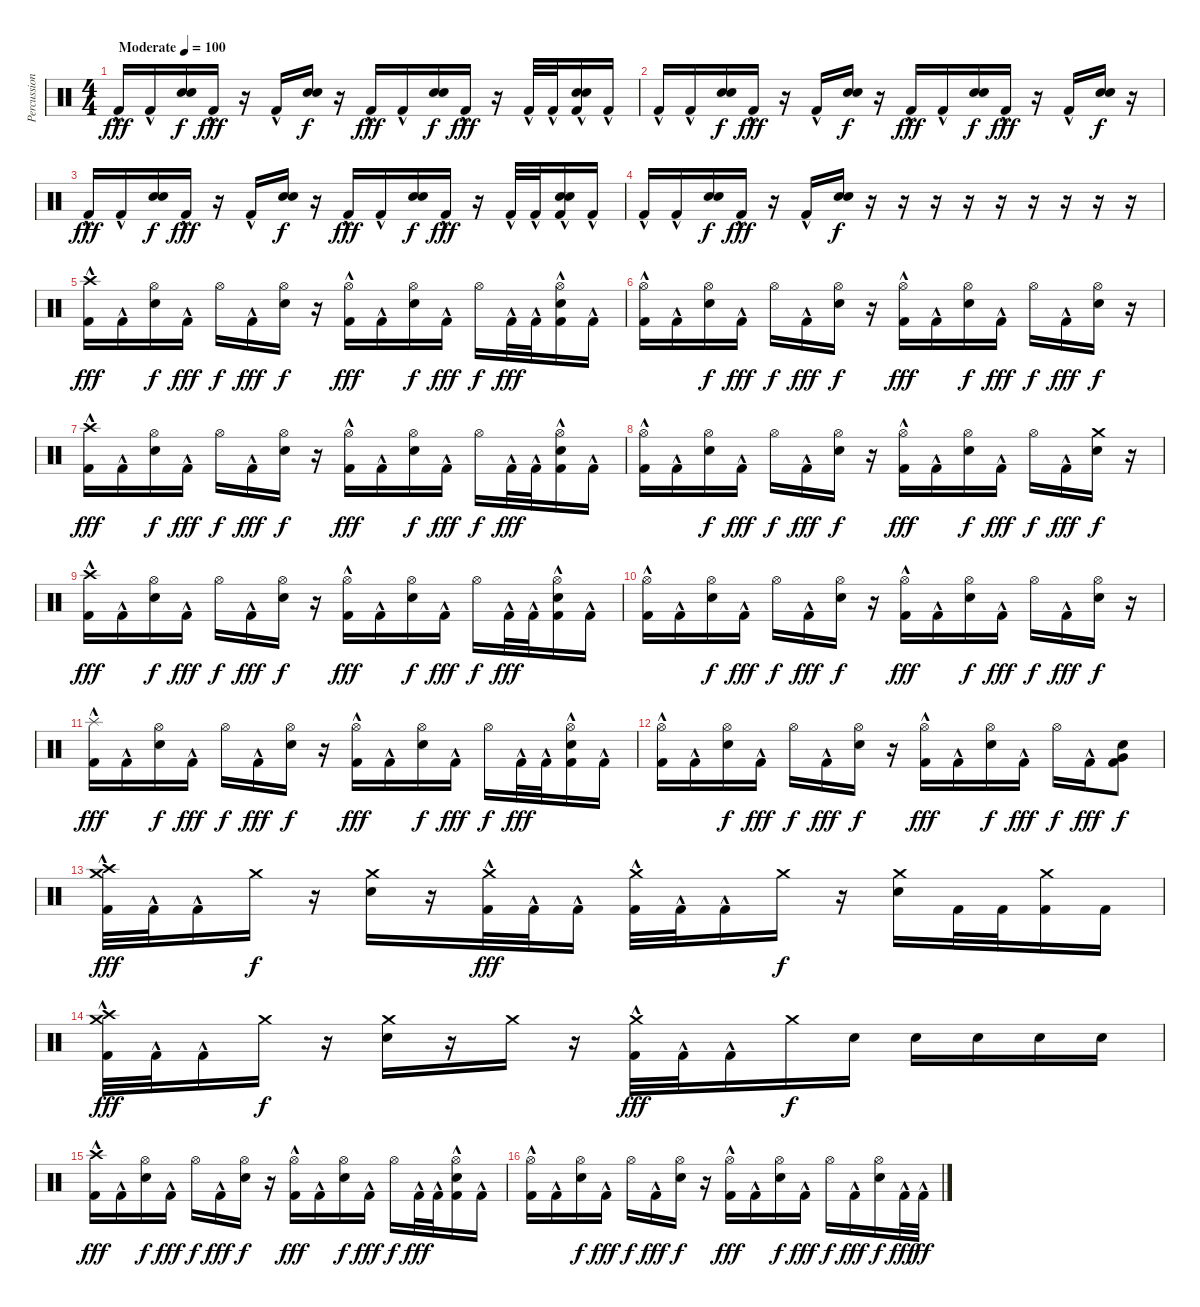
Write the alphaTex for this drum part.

\track ("Percussion" "Percussion") {instrument percussion}
\staff {score}
\articulation defaults
\ts (4 4)
\tempo (100 "Moderate")
\clef neutral
\ks c "Kick (hit) 2"{hac}.16{dy fff} "Kick (hit) 2"{hac}.16
("Electric Snare (hit)" "Electric Snare (hit)").16{bd 60 dy f} "Kick (hit) 2"{hac}.16{dy fff} r.16 "Kick (hit) 2"{hac}.16 ("Electric Snare (hit)" "Electric Snare (hit)").16{bd 60 dy f} r.16 "Kick (hit) 2"{hac}.16{dy fff} "Kick (hit) 2"{hac}.16 ("Electric Snare (hit)" "Electric Snare (hit)").16{bd 60 dy f} "Kick (hit) 2"{hac}.16{dy fff} r.16 "Kick (hit) 2"{hac}.32 "Kick (hit) 2"{hac}.32 ("Electric Snare (hit)" "Electric Snare (hit)" "Kick (hit) 2"{hac}).16{bd 60} "Kick (hit) 2"{hac}.16 |
"Kick (hit) 2"{hac}.16 "Kick (hit) 2"{hac}.16 ("Electric Snare (hit)" "Electric Snare (hit)").16{bd 60 dy f} "Kick (hit) 2"{hac}.16{dy fff} r.16 "Kick (hit) 2"{hac}.16 ("Electric Snare (hit)" "Electric Snare (hit)").16{bd 60 dy f} r.16 "Kick (hit) 2"{hac}.16{dy fff} "Kick (hit) 2"{hac}.16 ("Electric Snare (hit)" "Electric Snare (hit)").16{bd 60 dy f} "Kick (hit) 2"{hac}.16{dy fff} r.16 "Kick (hit) 2"{hac}.16 ("Electric Snare (hit)" "Electric Snare (hit)").16{bd 60 dy f} r.16 |
"Kick (hit) 2"{hac}.16{dy fff} "Kick (hit) 2"{hac}.16 ("Electric Snare (hit)" "Electric Snare (hit)").16{bd 60 dy f} "Kick (hit) 2"{hac}.16{dy fff} r.16 "Kick (hit) 2"{hac}.16 ("Electric Snare (hit)" "Electric Snare (hit)").16{bd 60 dy f} r.16 "Kick (hit) 2"{hac}.16{dy fff} "Kick (hit) 2"{hac}.16 ("Electric Snare (hit)" "Electric Snare (hit)").16{bd 60 dy f} "Kick (hit) 2"{hac}.16{dy fff} r.16 "Kick (hit) 2"{hac}.32 "Kick (hit) 2"{hac}.32 ("Electric Snare (hit)" "Electric Snare (hit)" "Kick (hit) 2"{hac}).16{bd 60} "Kick (hit) 2"{hac}.16 |
"Kick (hit) 2"{hac}.16 "Kick (hit) 2"{hac}.16 ("Electric Snare (hit)" "Electric Snare (hit)").16{bd 60 dy f} "Kick (hit) 2"{hac}.16{dy fff} r.16 "Kick (hit) 2"{hac}.16 ("Electric Snare (hit)" "Electric Snare (hit)").16{bd 60 dy f} r.16 r.16 r.16 r.16 r.16 r.16 r.16 r.16 r.16 |
("Kick (hit) 2"{hac} "Crash high (hit)").16{dy fff} "Kick (hit) 2"{hac}.16 ("Electric Snare (hit)" "Hi-Hat (open)").16{dy f} "Kick (hit) 2"{hac}.16{dy fff} "Hi-Hat (open)".16{dy f} "Kick (hit) 2"{hac}.16{dy fff} ("Electric Snare (hit)" "Hi-Hat (open)").16{dy f} r.16 ("Kick (hit) 2"{hac} "Hi-Hat (open)").16{dy fff} "Kick (hit) 2"{hac}.16 ("Electric Snare (hit)" "Hi-Hat (open)").16{dy f} "Kick (hit) 2"{hac}.16{dy fff} "Hi-Hat (open)".16{dy f} "Kick (hit) 2"{hac}.32{dy fff} "Kick (hit) 2"{hac}.32 ("Electric Snare (hit)" "Kick (hit) 2"{hac} "Hi-Hat (open)").16 "Kick (hit) 2"{hac}.16 |
("Kick (hit) 2"{hac} "Hi-Hat (open)").16 "Kick (hit) 2"{hac}.16 ("Electric Snare (hit)" "Hi-Hat (open)").16{dy f} "Kick (hit) 2"{hac}.16{dy fff} "Hi-Hat (open)".16{dy f} "Kick (hit) 2"{hac}.16{dy fff} ("Electric Snare (hit)" "Hi-Hat (open)").16{dy f} r.16 ("Kick (hit) 2"{hac} "Hi-Hat (open)").16{dy fff} "Kick (hit) 2"{hac}.16 ("Electric Snare (hit)" "Hi-Hat (open)").16{dy f} "Kick (hit) 2"{hac}.16{dy fff} "Hi-Hat (open)".16{dy f} "Kick (hit) 2"{hac}.16{dy fff} ("Electric Snare (hit)" "Hi-Hat (open)").16{dy f} r.16 |
("Kick (hit) 2"{hac} "Crash high (hit)").16{dy fff} "Kick (hit) 2"{hac}.16 ("Electric Snare (hit)" "Hi-Hat (open)").16{dy f} "Kick (hit) 2"{hac}.16{dy fff} "Hi-Hat (open)".16{dy f} "Kick (hit) 2"{hac}.16{dy fff} ("Electric Snare (hit)" "Hi-Hat (open)").16{dy f} r.16 ("Kick (hit) 2"{hac} "Hi-Hat (open)").16{dy fff} "Kick (hit) 2"{hac}.16 ("Electric Snare (hit)" "Hi-Hat (open)").16{dy f} "Kick (hit) 2"{hac}.16{dy fff} "Hi-Hat (open)".16{dy f} "Kick (hit) 2"{hac}.32{dy fff} "Kick (hit) 2"{hac}.32 ("Electric Snare (hit)" "Kick (hit) 2"{hac} "Hi-Hat (open)").16 "Kick (hit) 2"{hac}.16 |
("Kick (hit) 2"{hac} "Hi-Hat (open)").16 "Kick (hit) 2"{hac}.16 ("Electric Snare (hit)" "Hi-Hat (open)").16{dy f} "Kick (hit) 2"{hac}.16{dy fff} "Hi-Hat (open)".16{dy f} "Kick (hit) 2"{hac}.16{dy fff} ("Electric Snare (hit)" "Hi-Hat (open)").16{dy f} r.16 ("Kick (hit) 2"{hac} "Hi-Hat (open)").16{dy fff} "Kick (hit) 2"{hac}.16 ("Electric Snare (hit)" "Hi-Hat (open)").16{dy f} "Kick (hit) 2"{hac}.16{dy fff} "Hi-Hat (open)".16{dy f} "Kick (hit) 2"{hac}.16{dy fff} ("Electric Snare (hit)" "Crash medium (hit)").16{dy f} r.16 |
("Kick (hit) 2"{hac} "Crash high (hit)").16{dy fff} "Kick (hit) 2"{hac}.16 ("Electric Snare (hit)" "Hi-Hat (open)").16{dy f} "Kick (hit) 2"{hac}.16{dy fff} "Hi-Hat (open)".16{dy f} "Kick (hit) 2"{hac}.16{dy fff} ("Electric Snare (hit)" "Hi-Hat (open)").16{dy f} r.16 ("Kick (hit) 2"{hac} "Hi-Hat (open)").16{dy fff} "Kick (hit) 2"{hac}.16 ("Electric Snare (hit)" "Hi-Hat (open)").16{dy f} "Kick (hit) 2"{hac}.16{dy fff} "Hi-Hat (open)".16{dy f} "Kick (hit) 2"{hac}.32{dy fff} "Kick (hit) 2"{hac}.32 ("Electric Snare (hit)" "Kick (hit) 2"{hac} "Hi-Hat (open)").16 "Kick (hit) 2"{hac}.16 |
("Kick (hit) 2"{hac} "Hi-Hat (open)").16 "Kick (hit) 2"{hac}.16 ("Electric Snare (hit)" "Hi-Hat (open)").16{dy f} "Kick (hit) 2"{hac}.16{dy fff} "Hi-Hat (open)".16{dy f} "Kick (hit) 2"{hac}.16{dy fff} ("Electric Snare (hit)" "Hi-Hat (open)").16{dy f} r.16 ("Kick (hit) 2"{hac} "Hi-Hat (open)").16{dy fff} "Kick (hit) 2"{hac}.16 ("Electric Snare (hit)" "Hi-Hat (open)").16{dy f} "Kick (hit) 2"{hac}.16{dy fff} "Hi-Hat (open)".16{dy f} "Kick (hit) 2"{hac}.16{dy fff} ("Electric Snare (hit)" "Hi-Hat (open)").16{dy f} r.16 |
("Kick (hit) 2"{hac} "Splash (hit)").16{dy fff} "Kick (hit) 2"{hac}.16 ("Electric Snare (hit)" "Hi-Hat (open)").16{dy f} "Kick (hit) 2"{hac}.16{dy fff} "Hi-Hat (open)".16{dy f} "Kick (hit) 2"{hac}.16{dy fff} ("Electric Snare (hit)" "Hi-Hat (open)").16{dy f} r.16 ("Kick (hit) 2"{hac} "Hi-Hat (open)").16{dy fff} "Kick (hit) 2"{hac}.16 ("Electric Snare (hit)" "Hi-Hat (open)").16{dy f} "Kick (hit) 2"{hac}.16{dy fff} "Hi-Hat (open)".16{dy f} "Kick (hit) 2"{hac}.32{dy fff} "Kick (hit) 2"{hac}.32 ("Electric Snare (hit)" "Kick (hit) 2"{hac} "Hi-Hat (open)").16 "Kick (hit) 2"{hac}.16 |
("Kick (hit) 2"{hac} "Hi-Hat (open)").16 "Kick (hit) 2"{hac}.16 ("Electric Snare (hit)" "Hi-Hat (open)").16{dy f} "Kick (hit) 2"{hac}.16{dy fff} "Hi-Hat (open)".16{dy f} "Kick (hit) 2"{hac}.16{dy fff} ("Electric Snare (hit)" "Hi-Hat (open)").16{dy f} r.16 ("Kick (hit) 2"{hac} "Hi-Hat (open)").16{dy fff} "Kick (hit) 2"{hac}.16 ("Electric Snare (hit)" "Hi-Hat (open)").16{dy f} "Kick (hit) 2"{hac}.16{dy fff} "Hi-Hat (open)".16{dy f} "Kick (hit) 2"{hac}.16{dy fff} ("Kick (hit) 2" "Electric Snare (hit)" "Very Low Tom (hit)").8{dy f} |
("Kick (hit) 2"{hac} "Crash medium (hit)" "Crash high (hit)").32{dy fff} "Kick (hit) 2"{hac}.32 "Kick (hit) 2"{hac}.16 "Crash medium (hit)".16{dy f} r.16 ("Electric Snare (hit)" "Crash medium (hit)").16 r.16 ("Kick (hit) 2"{hac} "Crash medium (hit)").32{dy fff} "Kick (hit) 2"{hac}.32 "Kick (hit) 2"{hac}.16 ("Kick (hit) 2"{hac} "Crash medium (hit)").32 "Kick (hit) 2"{hac}.32 "Kick (hit) 2"{hac}.16 "Crash medium (hit)".16{dy f} r.16 ("Electric Snare (hit)" "Crash medium (hit)").16 "Kick (hit) 2".32 "Kick (hit) 2".32 ("Kick (hit) 2" "Crash medium (hit)").16 "Kick (hit) 2".16 |
("Kick (hit) 2"{hac} "Crash medium (hit)" "Crash high (hit)").32{dy fff} "Kick (hit) 2"{hac}.32 "Kick (hit) 2"{hac}.16 "Crash medium (hit)".16{dy f} r.16 ("Electric Snare (hit)" "Crash medium (hit)").16 r.16 "Crash medium (hit)".16 r.16 ("Kick (hit) 2"{hac} "Crash medium (hit)").32{dy fff} "Kick (hit) 2"{hac}.32 "Kick (hit) 2"{hac}.16 "Crash medium (hit)".16{dy f} "Electric Snare (hit)".16 "Electric Snare (hit)".16 "Electric Snare (hit)".16 "Electric Snare (hit)".16 "Electric Snare (hit)".16 |
("Kick (hit) 2"{hac} "Crash high (hit)").16{dy fff} "Kick (hit) 2"{hac}.16 ("Electric Snare (hit)" "Hi-Hat (open)").16{dy f} "Kick (hit) 2"{hac}.16{dy fff} "Hi-Hat (open)".16{dy f} "Kick (hit) 2"{hac}.16{dy fff} ("Electric Snare (hit)" "Hi-Hat (open)").16{dy f} r.16 ("Kick (hit) 2"{hac} "Hi-Hat (open)").16{dy fff} "Kick (hit) 2"{hac}.16 ("Electric Snare (hit)" "Hi-Hat (open)").16{dy f} "Kick (hit) 2"{hac}.16{dy fff} "Hi-Hat (open)".16{dy f} "Kick (hit) 2"{hac}.32{dy fff} "Kick (hit) 2"{hac}.32 ("Electric Snare (hit)" "Kick (hit) 2"{hac} "Hi-Hat (open)").16 "Kick (hit) 2"{hac}.16 |
("Kick (hit) 2"{hac} "Hi-Hat (open)").16 "Kick (hit) 2"{hac}.16 ("Electric Snare (hit)" "Hi-Hat (open)").16{dy f} "Kick (hit) 2"{hac}.16{dy fff} "Hi-Hat (open)".16{dy f} "Kick (hit) 2"{hac}.16{dy fff} ("Electric Snare (hit)" "Hi-Hat (open)").16{dy f} r.16 ("Kick (hit) 2"{hac} "Hi-Hat (open)").16{dy fff} "Kick (hit) 2"{hac}.16 ("Electric Snare (hit)" "Hi-Hat (open)").16{dy f} "Kick (hit) 2"{hac}.16{dy fff} "Hi-Hat (open)".16{dy f} "Kick (hit) 2"{hac}.16{dy fff} ("Electric Snare (hit)" "Hi-Hat (open)").16{dy f} "Kick (hit) 2"{hac}.32{dy fff} "Kick (hit) 2"{hac}.32{dy ff}
